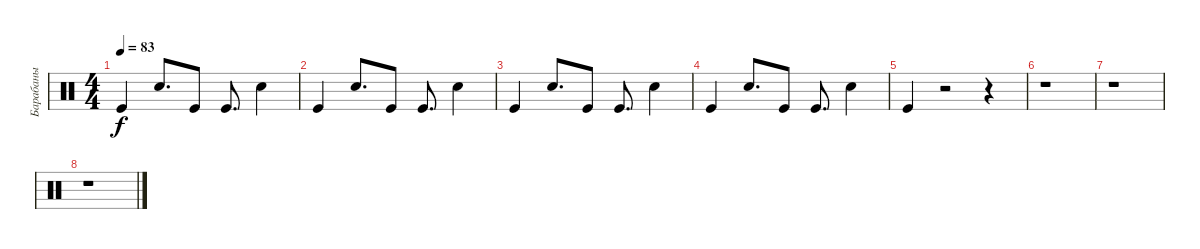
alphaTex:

\track ("Барабаны" "Барабаны") {instrument percussion}
\staff {score}
\articulation defaults
\ts (4 4)
\tempo 83
\clef neutral
\ks c "Kick (hit)".4{dy f} "Snare (hit) 2".8{d} "Kick (hit)".8 "Kick (hit)".8{d} "Snare (hit) 2".4
|
"Kick (hit)".4 "Snare (hit) 2".8{d} "Kick (hit)".8 "Kick (hit)".8{d} "Snare (hit) 2".4 |
"Kick (hit)".4 "Snare (hit) 2".8{d} "Kick (hit)".8 "Kick (hit)".8{d} "Snare (hit) 2".4 |
"Kick (hit)".4 "Snare (hit) 2".8{d} "Kick (hit)".8 "Kick (hit)".8{d} "Snare (hit) 2".4 |
"Kick (hit)".4 r.2 r.4 |
r.1 |
r.1 |
r.1
